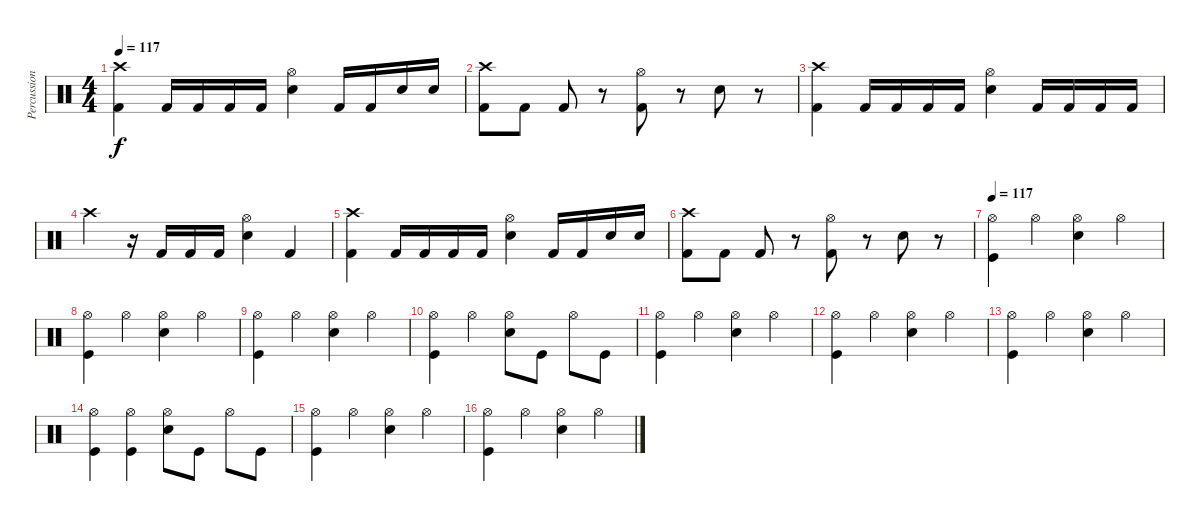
\track ("Percussion" "Percussion") {instrument percussion}
\staff {score}
\articulation defaults
\ts (4 4)
\tempo 117
\clef neutral
\ks c
("Crash high (hit)" "Kick (hit) 2").4{dy f} "Kick (hit) 2".16 "Kick (hit) 2".16 "Kick (hit) 2".16 "Kick (hit) 2".16 ("Hi-Hat (open)" "Snare (hit) 2").4 "Kick (hit) 2".16 "Kick (hit) 2".16 "Snare (hit) 2".16 "Snare (hit) 2".16 |
("Crash high (hit)" "Kick (hit) 2").8 "Kick (hit) 2".8 "Kick (hit) 2".8 r.8 ("Hi-Hat (open)" "Kick (hit) 2").8 r.8 "Snare (hit) 2".8 r.8 |
("Crash high (hit)" "Kick (hit) 2").4 "Kick (hit) 2".16 "Kick (hit) 2".16 "Kick (hit) 2".16 "Kick (hit) 2".16 ("Hi-Hat (open)" "Snare (hit) 2").4 "Kick (hit) 2".16 "Kick (hit) 2".16 "Kick (hit) 2".16 "Kick (hit) 2".16 |
"Crash high (hit)".4 r.16 "Kick (hit) 2".16 "Kick (hit) 2".16 "Kick (hit) 2".16 ("Hi-Hat (open)" "Snare (hit) 2").4 "Kick (hit) 2".4 |
("Crash high (hit)" "Kick (hit) 2").4 "Kick (hit) 2".16 "Kick (hit) 2".16 "Kick (hit) 2".16 "Kick (hit) 2".16 ("Hi-Hat (open)" "Snare (hit) 2").4 "Kick (hit) 2".16 "Kick (hit) 2".16 "Snare (hit) 2".16 "Snare (hit) 2".16 |
("Crash high (hit)" "Kick (hit) 2").8 "Kick (hit) 2".8 "Kick (hit) 2".8 r.8 ("Hi-Hat (open)" "Kick (hit) 2").8 r.8 "Snare (hit) 2".8 r.8 |
\tempo 117
("Hi-Hat (open)" "Kick (hit)").4 "Hi-Hat (open)".4 ("Hi-Hat (open)" "Electric Snare (hit)").4 "Hi-Hat (open)".4 |
("Hi-Hat (open)" "Kick (hit)").4 "Hi-Hat (open)".4 ("Hi-Hat (open)" "Electric Snare (hit)").4 "Hi-Hat (open)".4 |
("Hi-Hat (open)" "Kick (hit)").4 "Hi-Hat (open)".4 ("Hi-Hat (open)" "Electric Snare (hit)").4 "Hi-Hat (open)".4 |
("Hi-Hat (open)" "Kick (hit)").4 "Hi-Hat (open)".4 ("Hi-Hat (open)" "Electric Snare (hit)").8 "Kick (hit)".8 "Hi-Hat (open)".8 "Kick (hit)".8 |
("Hi-Hat (open)" "Kick (hit)").4 "Hi-Hat (open)".4 ("Hi-Hat (open)" "Electric Snare (hit)").4 "Hi-Hat (open)".4 |
("Hi-Hat (open)" "Kick (hit)").4 "Hi-Hat (open)".4 ("Hi-Hat (open)" "Electric Snare (hit)").4 "Hi-Hat (open)".4 |
("Hi-Hat (open)" "Kick (hit)").4 "Hi-Hat (open)".4 ("Hi-Hat (open)" "Electric Snare (hit)").4 "Hi-Hat (open)".4 |
("Hi-Hat (open)" "Kick (hit)").4 ("Hi-Hat (open)" "Kick (hit)").4 ("Hi-Hat (open)" "Electric Snare (hit)").8 "Kick (hit)".8 "Hi-Hat (open)".8 "Kick (hit)".8 |
("Hi-Hat (open)" "Kick (hit)").4 "Hi-Hat (open)".4 ("Hi-Hat (open)" "Electric Snare (hit)").4 "Hi-Hat (open)".4 |
("Hi-Hat (open)" "Kick (hit)").4 "Hi-Hat (open)".4 ("Hi-Hat (open)" "Electric Snare (hit)").4 "Hi-Hat (open)".4
